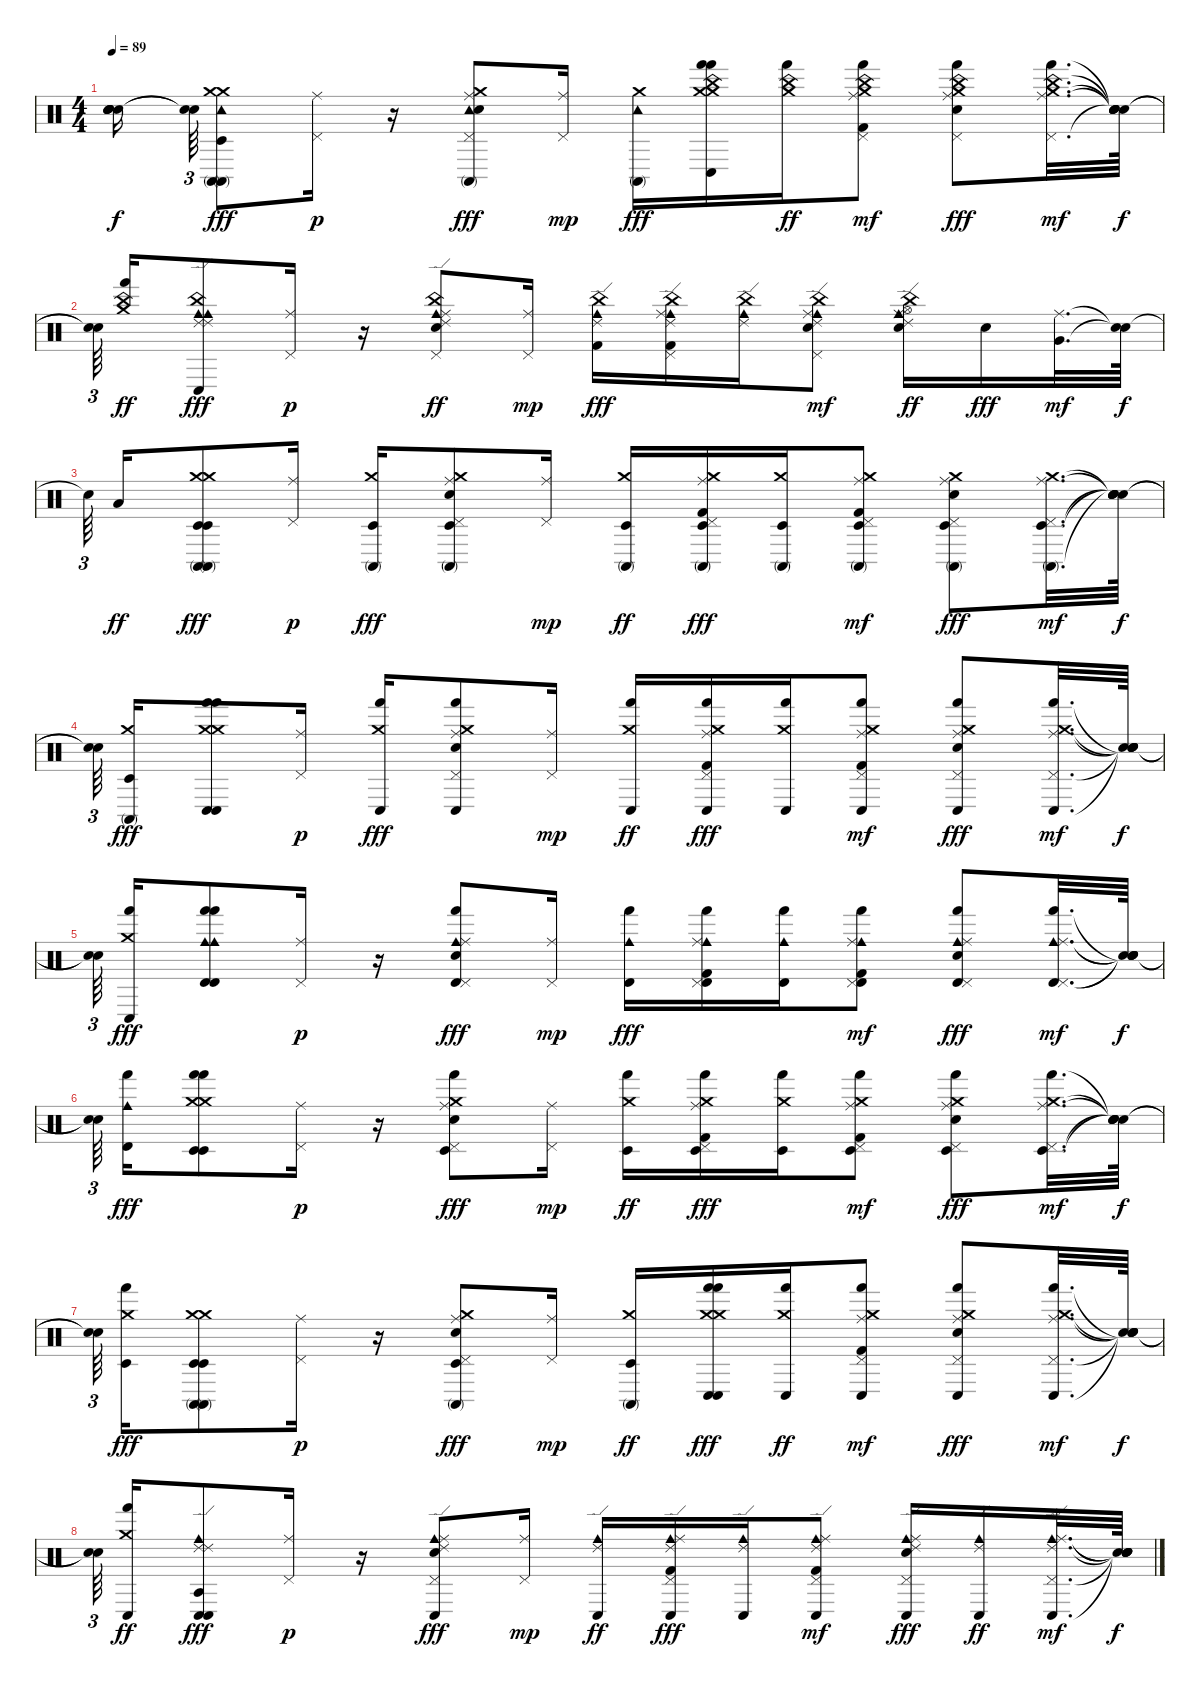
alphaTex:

\track "" {instrument percussion}
\staff {score}
\articulation defaults
\ts (4 4)
\tempo 89
\clef neutral
\ks c
("Snare (hit)"{t} "Snare (hit)"{t} "Snare (hit)"{t} "Snare (hit)"{t} "Snare (hit)"{t}).16{dy f beam splitsecondary} ("Snare (hit)"{t} "Snare (hit)"{t}).64{tu (3 2)} ("Crash medium (hit)" "Conga high (mute)" "Timbale low (hit)" "Tambourine (hit)" "Crash medium (hit)" "Conga high (mute)").8{dy fff} ("Pedal Hi-Hat (hit)" "Ride (middle)").16{dy p} r.16 ("Tambourine (hit)" "Crash medium (hit)" "Conga high (mute)" "Snare (hit) 2" "Pedal Hi-Hat (hit)" "Ride (middle)").8{dy fff} ("Pedal Hi-Hat (hit)" "Ride (middle)").16{dy mp} ("Tambourine (hit)" "Crash medium (hit)" "Conga high (mute)").16{dy fff} ("Crash medium (hit)" "Hand (hit)" "Conga low (hit)" "China (hit)" "Crash medium (hit)" "Hand (hit)").16 ("China (hit)" "Crash medium (hit)" "Hand (hit)").16{dy ff} ("China (hit)" "Crash medium (hit)" "Hand (hit)" "Kick (hit) 2" "Pedal Hi-Hat (hit)" "Ride (middle)").8{dy mf} ("China (hit)" "Crash medium (hit)" "Hand (hit)" "Snare (hit) 2" "Pedal Hi-Hat (hit)" "Ride (middle)").8{dy fff} ("China (hit)" "Crash medium (hit)" "Hand (hit)" "Pedal Hi-Hat (hit)" "Ride (middle)").32{d dy mf} ("Snare (hit)"{t} "Snare (hit)"{t} "Snare (hit)"{t} "Snare (hit)"{t} "Snare (hit)"{t}).64{dy f} |
("Snare (hit)"{t} "Snare (hit)"{t}).64{tu (3 2) beam splitsecondary} ("China (hit)" "Crash medium (hit)" "Hand (hit)").16{dy ff} ("Cowbell medium (hit)" "Ride (edge) 2" "Conga low (hit)" "China (hit)" "Cowbell medium (hit)" "Ride (edge) 2").8{dy fff} ("Pedal Hi-Hat (hit)" "Ride (middle)").16{dy p} r.16 ("China (hit)" "Cowbell medium (hit)" "Ride (edge) 2" "Snare (hit) 2" "Pedal Hi-Hat (hit)" "Ride (middle)").8{dy ff} ("Pedal Hi-Hat (hit)" "Ride (middle)").16{dy mp} ("China (hit)" "Cowbell medium (hit)" "Ride (edge) 2" "Kick (hit) 2").16{dy fff} ("China (hit)" "Cowbell medium (hit)" "Ride (edge) 2" "Kick (hit) 2" "Pedal Hi-Hat (hit)" "Ride (middle)").16 ("China (hit)" "Cowbell medium (hit)" "Ride (edge) 2").16 ("China (hit)" "Cowbell medium (hit)" "Ride (edge) 2" "Snare (hit) 2" "Pedal Hi-Hat (hit)" "Ride (middle)").8{dy mf} ("China (hit)" "Cowbell medium (hit)" "Ride (edge) 2" "Snare (hit) 2" "Hi-Hat (open)" "Ride (middle)").16{dy ff} "Snare (hit) 2".16{dy fff} ("Very Low Tom (hit)" "Ride (middle)").32{d dy mf} ("Snare (hit)"{t} "Snare (hit)"{t}).64{dy f} |
"Snare (hit)"{t}.64{tu (3 2) beam splitsecondary} "Low Tom (hit)".16{dy ff} ("Crash medium (hit)" "Conga high (mute)" "Timbale low (hit)" "Crash medium (hit)" "Conga high (mute)" "Timbale low (hit)").8{dy fff} ("Pedal Hi-Hat (hit)" "Ride (middle)").16{dy p} ("Crash medium (hit)" "Conga high (mute)" "Timbale low (hit)").16{dy fff} ("Crash medium (hit)" "Conga high (mute)" "Timbale low (hit)" "Snare (hit) 2" "Pedal Hi-Hat (hit)" "Ride (middle)").8 ("Pedal Hi-Hat (hit)" "Ride (middle)").16{dy mp} ("Crash medium (hit)" "Conga high (mute)" "Timbale low (hit)").16{dy ff} ("Crash medium (hit)" "Conga high (mute)" "Timbale low (hit)" "Kick (hit) 2" "Pedal Hi-Hat (hit)" "Ride (middle)").16{dy fff} ("Crash medium (hit)" "Conga high (mute)" "Timbale low (hit)").16 ("Crash medium (hit)" "Conga high (mute)" "Timbale low (hit)" "Kick (hit) 2" "Pedal Hi-Hat (hit)" "Ride (middle)").8{dy mf} ("Crash medium (hit)" "Conga high (mute)" "Timbale low (hit)" "Snare (hit) 2" "Pedal Hi-Hat (hit)" "Ride (middle)").8{dy fff} ("Crash medium (hit)" "Conga high (mute)" "Timbale low (hit)" "Pedal Hi-Hat (hit)" "Ride (middle)").32{d dy mf} ("Snare (hit)"{t} "Snare (hit)"{t} "Snare (hit)"{t} "Snare (hit)"{t} "Snare (hit)"{t}).64{dy f} |
("Snare (hit)"{t} "Snare (hit)"{t}).64{tu (3 2) beam splitsecondary} ("Crash medium (hit)" "Conga high (mute)" "Timbale low (hit)").16{dy fff} ("Crash medium (hit)" "Hand (hit)" "Conga low (hit)" "Crash medium (hit)" "Hand (hit)" "Conga low (hit)").8 ("Pedal Hi-Hat (hit)" "Ride (middle)").16{dy p} ("Crash medium (hit)" "Hand (hit)" "Conga low (hit)").16{dy fff} ("Crash medium (hit)" "Hand (hit)" "Conga low (hit)" "Snare (hit) 2" "Pedal Hi-Hat (hit)" "Ride (middle)").8 ("Pedal Hi-Hat (hit)" "Ride (middle)").16{dy mp} ("Crash medium (hit)" "Hand (hit)" "Conga low (hit)").16{dy ff} ("Crash medium (hit)" "Hand (hit)" "Conga low (hit)" "Kick (hit) 2" "Pedal Hi-Hat (hit)" "Ride (middle)").16{dy fff} ("Crash medium (hit)" "Hand (hit)" "Conga low (hit)").16 ("Crash medium (hit)" "Hand (hit)" "Conga low (hit)" "Kick (hit) 2" "Pedal Hi-Hat (hit)" "Ride (middle)").8{dy mf} ("Crash medium (hit)" "Hand (hit)" "Conga low (hit)" "Snare (hit) 2" "Pedal Hi-Hat (hit)" "Ride (middle)").8{dy fff} ("Crash medium (hit)" "Hand (hit)" "Conga low (hit)" "Pedal Hi-Hat (hit)" "Ride (middle)").32{d dy mf} ("Snare (hit)"{t} "Snare (hit)"{t} "Snare (hit)"{t} "Snare (hit)"{t} "Snare (hit)"{t}).64{dy f} |
("Snare (hit)"{t} "Snare (hit)"{t}).64{tu (3 2) beam splitsecondary} ("Crash medium (hit)" "Hand (hit)" "Conga low (hit)").16{dy fff} ("Cowbell medium (hit)" "Hand (hit)" "Timbale high (hit)" "Cowbell medium (hit)" "Hand (hit)" "Timbale high (hit)").8 ("Pedal Hi-Hat (hit)" "Ride (middle)").16{dy p} r.16 ("Cowbell medium (hit)" "Hand (hit)" "Timbale high (hit)" "Snare (hit) 2" "Pedal Hi-Hat (hit)" "Ride (middle)").8{dy fff} ("Pedal Hi-Hat (hit)" "Ride (middle)").16{dy mp} ("Cowbell medium (hit)" "Hand (hit)" "Timbale high (hit)").16{dy fff} ("Cowbell medium (hit)" "Hand (hit)" "Timbale high (hit)" "Kick (hit) 2" "Pedal Hi-Hat (hit)" "Ride (middle)").16 ("Cowbell medium (hit)" "Hand (hit)" "Timbale high (hit)").16 ("Cowbell medium (hit)" "Hand (hit)" "Timbale high (hit)" "Kick (hit) 2" "Pedal Hi-Hat (hit)" "Ride (middle)").8{dy mf} ("Cowbell medium (hit)" "Hand (hit)" "Timbale high (hit)" "Snare (hit) 2" "Pedal Hi-Hat (hit)" "Ride (middle)").8{dy fff} ("Cowbell medium (hit)" "Hand (hit)" "Timbale high (hit)" "Pedal Hi-Hat (hit)" "Ride (middle)").32{d dy mf} ("Snare (hit)"{t} "Snare (hit)"{t} "Snare (hit)"{t} "Snare (hit)"{t} "Snare (hit)"{t}).64{dy f} |
("Snare (hit)"{t} "Snare (hit)"{t}).64{tu (3 2) beam splitsecondary} ("Cowbell medium (hit)" "Hand (hit)" "Timbale high (hit)").16{dy fff} ("Crash medium (hit)" "Hand (hit)" "Timbale low (hit)" "Crash medium (hit)" "Hand (hit)" "Timbale low (hit)").8 ("Pedal Hi-Hat (hit)" "Ride (middle)").16{dy p} r.16 ("Crash medium (hit)" "Hand (hit)" "Timbale low (hit)" "Snare (hit) 2" "Pedal Hi-Hat (hit)" "Ride (middle)").8{dy fff} ("Pedal Hi-Hat (hit)" "Ride (middle)").16{dy mp} ("Crash medium (hit)" "Hand (hit)" "Timbale low (hit)").16{dy ff} ("Crash medium (hit)" "Hand (hit)" "Timbale low (hit)" "Kick (hit) 2" "Pedal Hi-Hat (hit)" "Ride (middle)").16{dy fff} ("Crash medium (hit)" "Hand (hit)" "Timbale low (hit)").16 ("Crash medium (hit)" "Hand (hit)" "Timbale low (hit)" "Kick (hit) 2" "Pedal Hi-Hat (hit)" "Ride (middle)").8{dy mf} ("Crash medium (hit)" "Hand (hit)" "Timbale low (hit)" "Snare (hit) 2" "Pedal Hi-Hat (hit)" "Ride (middle)").8{dy fff} ("Crash medium (hit)" "Hand (hit)" "Timbale low (hit)" "Pedal Hi-Hat (hit)" "Ride (middle)").32{d dy mf} ("Snare (hit)"{t} "Snare (hit)"{t} "Snare (hit)"{t} "Snare (hit)"{t} "Snare (hit)"{t}).64{dy f} |
("Snare (hit)"{t} "Snare (hit)"{t}).64{tu (3 2) beam splitsecondary} ("Crash medium (hit)" "Hand (hit)" "Timbale low (hit)").16{dy fff} ("Crash medium (hit)" "Conga high (mute)" "Timbale low (hit)" "Crash medium (hit)" "Conga high (mute)" "Timbale low (hit)").8 ("Pedal Hi-Hat (hit)" "Ride (middle)").16{dy p} r.16 ("Crash medium (hit)" "Conga high (mute)" "Timbale low (hit)" "Snare (hit) 2" "Pedal Hi-Hat (hit)" "Ride (middle)").8{dy fff} ("Pedal Hi-Hat (hit)" "Ride (middle)").16{dy mp} ("Crash medium (hit)" "Conga high (mute)" "Timbale low (hit)").16{dy ff} ("Crash medium (hit)" "Hand (hit)" "Conga low (hit)" "Crash medium (hit)" "Hand (hit)" "Conga low (hit)").16{dy fff} ("Crash medium (hit)" "Hand (hit)" "Conga low (hit)").16{dy ff} ("Crash medium (hit)" "Hand (hit)" "Conga low (hit)" "Kick (hit) 2" "Pedal Hi-Hat (hit)" "Ride (middle)").8{dy mf} ("Crash medium (hit)" "Hand (hit)" "Conga low (hit)" "Snare (hit) 2" "Pedal Hi-Hat (hit)" "Ride (middle)").8{dy fff} ("Crash medium (hit)" "Hand (hit)" "Conga low (hit)" "Pedal Hi-Hat (hit)" "Ride (middle)").32{d dy mf} ("Snare (hit)"{t} "Snare (hit)"{t} "Snare (hit)"{t} "Snare (hit)"{t} "Snare (hit)"{t}).64{dy f} |
("Snare (hit)"{t} "Snare (hit)"{t}).64{tu (3 2) beam splitsecondary} ("Crash medium (hit)" "Hand (hit)" "Conga low (hit)").16{dy ff} ("Ride (edge) 2" "Conga low (hit)" "Agogo tow (hit)" "Cowbell medium (hit)" "Ride (edge) 2" "Conga low (hit)").8{dy fff} ("Pedal Hi-Hat (hit)" "Ride (middle)").16{dy p} r.16 ("Cowbell medium (hit)" "Ride (edge) 2" "Conga low (hit)" "Snare (hit) 2" "Pedal Hi-Hat (hit)" "Ride (middle)").8{dy fff} ("Pedal Hi-Hat (hit)" "Ride (middle)").16{dy mp} ("Cowbell medium (hit)" "Ride (edge) 2" "Conga low (hit)").16{dy ff} ("Cowbell medium (hit)" "Ride (edge) 2" "Conga low (hit)" "Kick (hit) 2" "Pedal Hi-Hat (hit)" "Ride (middle)").16{dy fff} ("Cowbell medium (hit)" "Ride (edge) 2" "Conga low (hit)").16 ("Cowbell medium (hit)" "Ride (edge) 2" "Conga low (hit)" "Kick (hit) 2" "Pedal Hi-Hat (hit)" "Ride (middle)").8{dy mf} ("Cowbell medium (hit)" "Ride (edge) 2" "Conga low (hit)" "Snare (hit) 2" "Pedal Hi-Hat (hit)" "Ride (middle)").16{dy fff} ("Cowbell medium (hit)" "Ride (edge) 2" "Conga low (hit)").16{dy ff} ("Cowbell medium (hit)" "Ride (edge) 2" "Conga low (hit)" "Pedal Hi-Hat (hit)" "Ride (middle)").32{d dy mf} ("Snare (hit)"{t} "Snare (hit)"{t} "Snare (hit)"{t} "Snare (hit)"{t} "Snare (hit)"{t}).64{dy f}
